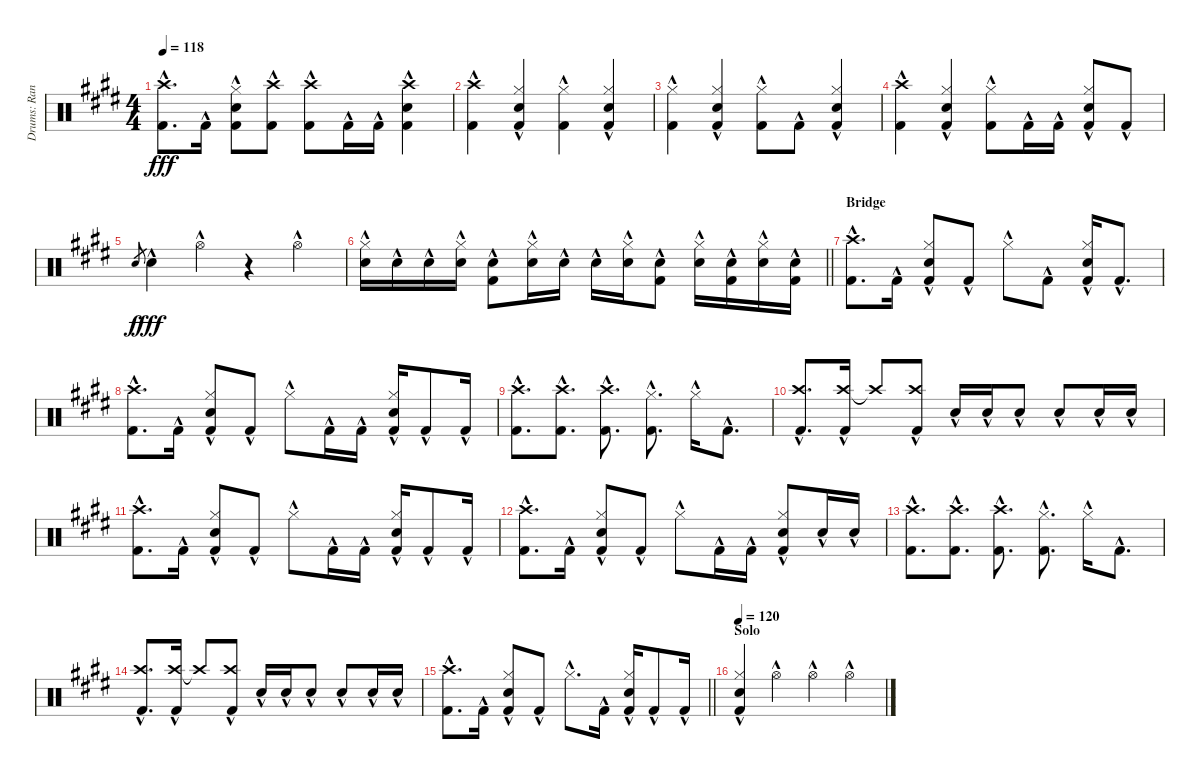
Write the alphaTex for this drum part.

\track ("Drums: Randy" "Drums: Ran") {instrument percussion}
\staff {score}
\articulation defaults
\ts (4 4)
\tempo 118
\clef neutral
\ks e
("Crash high (hit)"{hac} "Kick (hit) 2"{hac}).8{d dy fff} "Kick (hit) 2"{hac}.16 ("Hi-Hat (closed)"{hac} "Snare (hit) 2"{hac} "Kick (hit) 2"{hac}).8 ("Crash high (hit)"{hac} "Kick (hit) 2"{hac}).8 ("Crash high (hit)"{hac} "Kick (hit) 2"{hac}).8 "Kick (hit) 2"{hac}.16 "Kick (hit) 2"{hac}.16 ("Crash high (hit)"{hac} "Snare (hit) 2"{hac} "Kick (hit) 2"{hac}).4 |
("Crash high (hit)"{hac} "Kick (hit) 2"{hac}).4 ("Hi-Hat (closed)"{hac} "Snare (hit) 2"{hac} "Kick (hit) 2"{hac}).4 ("Hi-Hat (closed)"{hac} "Kick (hit) 2"{hac}).4 ("Hi-Hat (closed)"{hac} "Snare (hit) 2"{hac} "Kick (hit) 2"{hac}).4 |
("Hi-Hat (closed)"{hac} "Kick (hit) 2"{hac}).4 ("Hi-Hat (closed)"{hac} "Snare (hit) 2"{hac} "Kick (hit) 2"{hac}).4 ("Hi-Hat (closed)"{hac} "Kick (hit) 2"{hac}).8 "Kick (hit) 2"{hac}.8 ("Hi-Hat (closed)"{hac} "Snare (hit) 2"{hac} "Kick (hit) 2"{hac}).4 |
("Crash high (hit)"{hac} "Kick (hit) 2"{hac}).4 ("Hi-Hat (closed)"{hac} "Snare (hit) 2"{hac} "Kick (hit) 2"{hac}).4 ("Hi-Hat (closed)"{hac} "Kick (hit) 2"{hac}).8 "Kick (hit) 2"{hac}.16 "Kick (hit) 2"{hac}.16 ("Hi-Hat (closed)"{hac} "Snare (hit) 2"{hac} "Kick (hit) 2"{hac}).8 "Kick (hit) 2"{hac}.8 |
"Snare (hit) 2".8{gr dy f} "Snare (hit) 2"{hac}.4{dy fff} "Hi-Hat (open)"{hac}.4 r.4 "Hi-Hat (open)"{hac}.4 |
\barLineRight lightlight
("Hi-Hat (closed)"{hac} "Snare (hit) 2"{hac}).16 "Snare (hit) 2"{hac}.16 "Snare (hit) 2"{hac}.16 ("Hi-Hat (closed)"{hac} "Snare (hit) 2"{hac}).16 ("Snare (hit) 2"{hac} "Kick (hit) 2"{hac}).8 ("Hi-Hat (closed)"{hac} "Snare (hit) 2"{hac}).16 "Snare (hit) 2"{hac}.16 "Snare (hit) 2"{hac}.16 ("Hi-Hat (closed)"{hac} "Snare (hit) 2"{hac}).16 ("Snare (hit) 2"{hac} "Kick (hit) 2"{hac}).8 ("Hi-Hat (closed)"{hac} "Snare (hit) 2"{hac}).16 ("Snare (hit) 2"{hac} "Kick (hit) 2"{hac}).16 ("Hi-Hat (closed)"{hac} "Snare (hit) 2"{hac}).16 ("Snare (hit) 2"{hac} "Kick (hit) 2"{hac}).16 |
\section ("" "Bridge")
("Crash high (hit)"{hac} "Kick (hit) 2"{hac}).8{d} "Kick (hit) 2"{hac}.16 ("Hi-Hat (closed)"{hac} "Snare (hit) 2"{hac} "Kick (hit) 2"{hac}).8 "Kick (hit) 2"{hac}.8 "Hi-Hat (closed)"{hac}.8 "Kick (hit) 2"{hac}.8 ("Hi-Hat (closed)"{hac} "Snare (hit) 2"{hac} "Kick (hit) 2"{hac}).16 "Kick (hit) 2"{hac}.8{d} |
("Crash high (hit)"{hac} "Kick (hit) 2"{hac}).8{d} "Kick (hit) 2"{hac}.16 ("Hi-Hat (closed)"{hac} "Snare (hit) 2"{hac} "Kick (hit) 2"{hac}).8 "Kick (hit) 2"{hac}.8 "Hi-Hat (closed)"{hac}.8 "Kick (hit) 2"{hac}.16 "Kick (hit) 2"{hac}.16 ("Hi-Hat (closed)"{hac} "Snare (hit) 2"{hac} "Kick (hit) 2"{hac}).16 "Kick (hit) 2"{hac}.8 "Kick (hit) 2"{hac}.16 |
("Crash high (hit)"{hac} "Kick (hit) 2"{hac}).8{d} ("Crash high (hit)"{hac} "Kick (hit) 2"{hac}).8{d} ("Crash high (hit)"{hac} "Kick (hit) 2"{hac}).8{d} ("Hi-Hat (closed)"{hac} "Kick (hit) 2"{hac}).8{d} "Hi-Hat (closed)"{hac}.16 "Kick (hit) 2"{hac}.8{d} |
("Crash high (hit)"{hac} "Kick (hit) 2"{hac}).8{d beam Up} ("Crash high (hit)"{hac} "Kick (hit) 2"{hac}).16{beam Up} "Crash high (hit)"{t}.8{beam Up} ("Crash high (hit)"{hac} "Kick (hit) 2"{hac}).8{beam Up} "Snare (hit) 2"{hac}.16{beam Up} "Snare (hit) 2"{hac}.16{beam Up} "Snare (hit) 2"{hac}.8{beam Up} "Snare (hit) 2"{hac}.8{beam Up} "Snare (hit) 2"{hac}.16{beam Up} "Snare (hit) 2"{hac}.16{beam Up} |
("Crash high (hit)"{hac} "Kick (hit) 2"{hac}).8{d} "Kick (hit) 2"{hac}.16 ("Hi-Hat (closed)"{hac} "Snare (hit) 2"{hac} "Kick (hit) 2"{hac}).8 "Kick (hit) 2"{hac}.8 "Hi-Hat (closed)"{hac}.8 "Kick (hit) 2"{hac}.16 "Kick (hit) 2"{hac}.16 ("Hi-Hat (closed)"{hac} "Snare (hit) 2"{hac} "Kick (hit) 2"{hac}).16 "Kick (hit) 2"{hac}.8 "Kick (hit) 2"{hac}.16 |
("Crash high (hit)"{hac} "Kick (hit) 2"{hac}).8{d} "Kick (hit) 2"{hac}.16 ("Hi-Hat (closed)"{hac} "Snare (hit) 2"{hac} "Kick (hit) 2"{hac}).8 "Kick (hit) 2"{hac}.8 "Hi-Hat (closed)"{hac}.8 "Kick (hit) 2"{hac}.16 "Kick (hit) 2"{hac}.16 ("Hi-Hat (closed)"{hac} "Snare (hit) 2"{hac} "Kick (hit) 2"{hac}).8 "Snare (hit) 2"{hac}.16{beam Up} "Snare (hit) 2"{hac}.16{beam Up} |
("Crash high (hit)"{hac} "Kick (hit) 2"{hac}).8{d} ("Crash high (hit)"{hac} "Kick (hit) 2"{hac}).8{d} ("Crash high (hit)"{hac} "Kick (hit) 2"{hac}).8{d} ("Hi-Hat (closed)"{hac} "Kick (hit) 2"{hac}).8{d} "Hi-Hat (closed)"{hac}.16 "Kick (hit) 2"{hac}.8{d} |
("Crash high (hit)"{hac} "Kick (hit) 2"{hac}).8{d beam Up} ("Crash high (hit)"{hac} "Kick (hit) 2"{hac}).16{beam Up} "Crash high (hit)"{t}.8{beam Up} ("Crash high (hit)"{hac} "Kick (hit) 2"{hac}).8{beam Up} "Snare (hit) 2"{hac}.16{beam Up} "Snare (hit) 2"{hac}.16{beam Up} "Snare (hit) 2"{hac}.8{beam Up} "Snare (hit) 2"{hac}.8{beam Up} "Snare (hit) 2"{hac}.16{beam Up} "Snare (hit) 2"{hac}.16{beam Up} |
\barLineRight lightlight
("Crash high (hit)"{hac} "Kick (hit) 2"{hac}).8{d} "Kick (hit) 2"{hac}.16 ("Hi-Hat (closed)"{hac} "Snare (hit) 2"{hac} "Kick (hit) 2"{hac}).8 "Kick (hit) 2"{hac}.8 "Hi-Hat (closed)"{hac}.8{d} "Kick (hit) 2"{hac}.16 ("Hi-Hat (closed)"{hac} "Snare (hit) 2"{hac} "Kick (hit) 2"{hac}).16 "Kick (hit) 2"{hac}.8 "Kick (hit) 2"{hac}.16 |
\section ("" "Solo")
\tempo 120
("Hi-Hat (closed)"{hac} "Snare (hit) 2"{hac} "Kick (hit) 2"{hac}).4 "Hi-Hat (open)"{hac}.4 "Hi-Hat (open)"{hac}.4 "Hi-Hat (open)"{hac}.4
